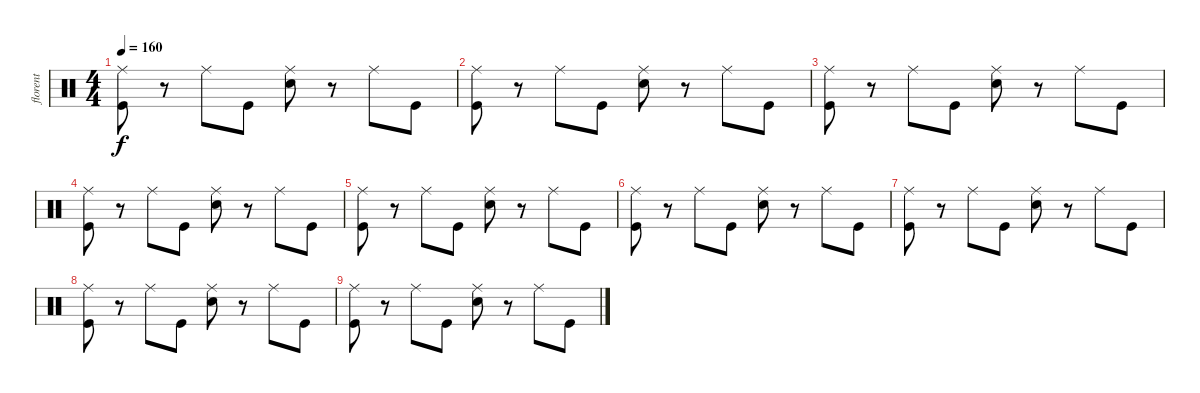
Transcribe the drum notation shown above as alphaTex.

\track ("florent" "florent") {instrument percussion}
\staff {score}
\articulation defaults
\ts (4 4)
\tempo 160
\clef neutral
\ks c
("Ride (middle)" "Kick (hit)").8{dy f} r.8 "Ride (middle)".8 "Kick (hit)".8 ("Ride (middle)" "Snare (hit) 2").8 r.8 "Ride (middle)".8 "Kick (hit)".8 |
("Ride (middle)" "Kick (hit)").8 r.8 "Ride (middle)".8 "Kick (hit)".8 ("Ride (middle)" "Snare (hit) 2").8 r.8 "Ride (middle)".8 "Kick (hit)".8 |
("Ride (middle)" "Kick (hit)").8 r.8 "Ride (middle)".8 "Kick (hit)".8 ("Ride (middle)" "Snare (hit) 2").8 r.8 "Ride (middle)".8 "Kick (hit)".8 |
("Ride (middle)" "Kick (hit)").8 r.8 "Ride (middle)".8 "Kick (hit)".8 ("Ride (middle)" "Snare (hit) 2").8 r.8 "Ride (middle)".8 "Kick (hit)".8 |
("Ride (middle)" "Kick (hit)").8 r.8 "Ride (middle)".8 "Kick (hit)".8 ("Ride (middle)" "Snare (hit) 2").8 r.8 "Ride (middle)".8 "Kick (hit)".8 |
("Ride (middle)" "Kick (hit)").8 r.8 "Ride (middle)".8 "Kick (hit)".8 ("Ride (middle)" "Snare (hit) 2").8 r.8 "Ride (middle)".8 "Kick (hit)".8 |
("Ride (middle)" "Kick (hit)").8 r.8 "Ride (middle)".8 "Kick (hit)".8 ("Ride (middle)" "Snare (hit) 2").8 r.8 "Ride (middle)".8 "Kick (hit)".8 |
("Ride (middle)" "Kick (hit)").8 r.8 "Ride (middle)".8 "Kick (hit)".8 ("Ride (middle)" "Snare (hit) 2").8 r.8 "Ride (middle)".8 "Kick (hit)".8 |
("Ride (middle)" "Kick (hit)").8 r.8 "Ride (middle)".8 "Kick (hit)".8 ("Ride (middle)" "Snare (hit) 2").8 r.8 "Ride (middle)".8 "Kick (hit)".8
